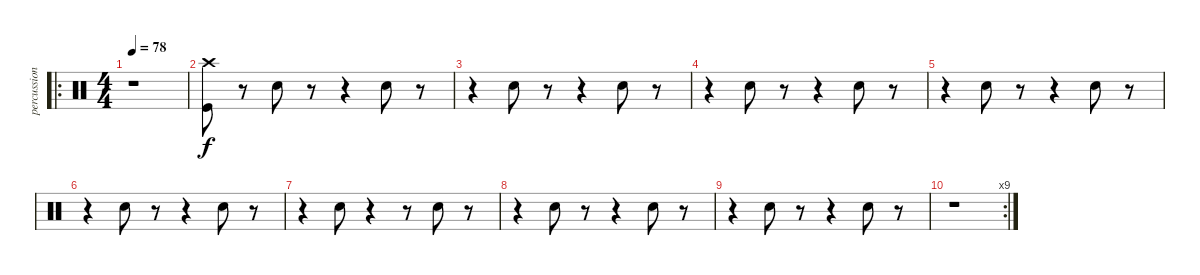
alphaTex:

\track ("percussion" "percussion") {instrument percussion}
\staff {score}
\articulation defaults
\ro
\ts (4 4)
\tempo 78
\clef neutral
\ks c
r.1{dy f} |
("Crash high (hit)" "Kick (hit)").8 r.8 "Electric Snare (hit)".8 r.8 r.4 "Electric Snare (hit)".8 r.8 |
r.4 "Electric Snare (hit)".8 r.8 r.4 "Electric Snare (hit)".8 r.8 |
r.4 "Electric Snare (hit)".8 r.8 r.4 "Electric Snare (hit)".8 r.8 |
r.4 "Electric Snare (hit)".8 r.8 r.4 "Electric Snare (hit)".8 r.8 |
r.4 "Electric Snare (hit)".8 r.8 r.4 "Electric Snare (hit)".8 r.8 |
r.4 "Electric Snare (hit)".8 r.4 r.8 "Electric Snare (hit)".8 r.8 |
r.4 "Electric Snare (hit)".8 r.8 r.4 "Electric Snare (hit)".8 r.8 |
r.4 "Electric Snare (hit)".8 r.8 r.4 "Electric Snare (hit)".8 r.8 |
\rc 9
r.1
